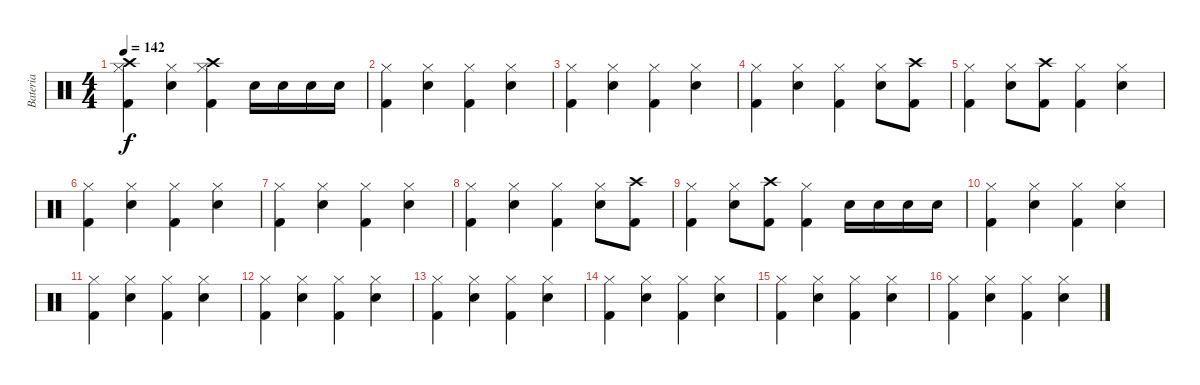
\track ("Bateria" "Bateria") {instrument percussion}
\staff {score}
\articulation defaults
\ts (4 4)
\tempo 142
\clef neutral
\ks c
("Crash high (hit)" "Hi-Hat (closed)" "Kick (hit) 2").4{dy f} ("Hi-Hat (closed)" "Electric Snare (hit)").4 ("Crash high (hit)" "Hi-Hat (closed)" "Kick (hit) 2").4 "Electric Snare (hit)".16 "Electric Snare (hit)".16 "Electric Snare (hit)".16 "Electric Snare (hit)".16 |
("Hi-Hat (closed)" "Kick (hit) 2").4 ("Hi-Hat (closed)" "Electric Snare (hit)").4 ("Hi-Hat (closed)" "Kick (hit) 2").4 ("Hi-Hat (closed)" "Electric Snare (hit)").4 |
("Hi-Hat (closed)" "Kick (hit) 2").4 ("Hi-Hat (closed)" "Electric Snare (hit)").4 ("Hi-Hat (closed)" "Kick (hit) 2").4 ("Hi-Hat (closed)" "Electric Snare (hit)").4 |
("Hi-Hat (closed)" "Kick (hit) 2").4 ("Hi-Hat (closed)" "Electric Snare (hit)").4 ("Hi-Hat (closed)" "Kick (hit) 2").4 ("Hi-Hat (closed)" "Electric Snare (hit)").8 ("Crash high (hit)" "Kick (hit) 2").8 |
("Hi-Hat (closed)" "Kick (hit) 2").4 ("Hi-Hat (closed)" "Electric Snare (hit)").8 ("Crash high (hit)" "Kick (hit) 2").8 ("Hi-Hat (closed)" "Kick (hit) 2").4 ("Hi-Hat (closed)" "Electric Snare (hit)").4 |
("Hi-Hat (closed)" "Kick (hit) 2").4 ("Hi-Hat (closed)" "Electric Snare (hit)").4 ("Hi-Hat (closed)" "Kick (hit) 2").4 ("Hi-Hat (closed)" "Electric Snare (hit)").4 |
("Hi-Hat (closed)" "Kick (hit) 2").4 ("Hi-Hat (closed)" "Electric Snare (hit)").4 ("Hi-Hat (closed)" "Kick (hit) 2").4 ("Hi-Hat (closed)" "Electric Snare (hit)").4 |
("Hi-Hat (closed)" "Kick (hit) 2").4 ("Hi-Hat (closed)" "Electric Snare (hit)").4 ("Hi-Hat (closed)" "Kick (hit) 2").4 ("Hi-Hat (closed)" "Electric Snare (hit)").8 ("Crash high (hit)" "Kick (hit) 2").8 |
("Hi-Hat (closed)" "Kick (hit) 2").4 ("Hi-Hat (closed)" "Electric Snare (hit)").8 ("Crash high (hit)" "Kick (hit) 2").8 ("Hi-Hat (closed)" "Kick (hit) 2").4 "Electric Snare (hit)".16 "Electric Snare (hit)".16 "Electric Snare (hit)".16 "Electric Snare (hit)".16 |
("Hi-Hat (closed)" "Kick (hit) 2").4 ("Hi-Hat (closed)" "Electric Snare (hit)").4 ("Hi-Hat (closed)" "Kick (hit) 2").4 ("Hi-Hat (closed)" "Electric Snare (hit)").4 |
("Hi-Hat (closed)" "Kick (hit) 2").4 ("Hi-Hat (closed)" "Electric Snare (hit)").4 ("Hi-Hat (closed)" "Kick (hit) 2").4 ("Hi-Hat (closed)" "Electric Snare (hit)").4 |
("Hi-Hat (closed)" "Kick (hit) 2").4 ("Hi-Hat (closed)" "Electric Snare (hit)").4 ("Hi-Hat (closed)" "Kick (hit) 2").4 ("Hi-Hat (closed)" "Electric Snare (hit)").4 |
("Hi-Hat (closed)" "Kick (hit) 2").4 ("Hi-Hat (closed)" "Electric Snare (hit)").4 ("Hi-Hat (closed)" "Kick (hit) 2").4 ("Hi-Hat (closed)" "Electric Snare (hit)").4 |
("Hi-Hat (closed)" "Kick (hit) 2").4 ("Hi-Hat (closed)" "Electric Snare (hit)").4 ("Hi-Hat (closed)" "Kick (hit) 2").4 ("Hi-Hat (closed)" "Electric Snare (hit)").4 |
("Hi-Hat (closed)" "Kick (hit) 2").4 ("Hi-Hat (closed)" "Electric Snare (hit)").4 ("Hi-Hat (closed)" "Kick (hit) 2").4 ("Hi-Hat (closed)" "Electric Snare (hit)").4 |
("Hi-Hat (closed)" "Kick (hit) 2").4 ("Hi-Hat (closed)" "Electric Snare (hit)").4 ("Hi-Hat (closed)" "Kick (hit) 2").4 ("Hi-Hat (closed)" "Electric Snare (hit)").4
